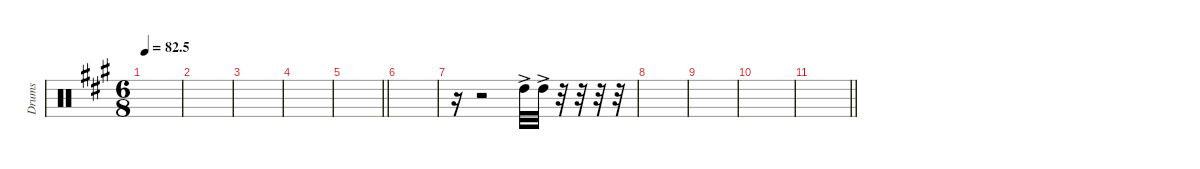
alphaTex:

\defaultSystemsLayout 4
\hideDynamics
\bracketExtendMode nobrackets
\otherSystemsTrackNameOrientation horizontal
\track ("Tom 01" "Drums") {instrument percussion}
\staff {score}
\articulation defaults
\ts (6 8)
\tempo
82.5
\accidentals auto
\clef neutral
\ottava regular
\simile none
\scale
0.333333
\ks a
|
\scale
0.333333 |
\scale
0.333333 |
\scale
0.333333 |
\scale
0.333333
\barLineRight lightlight
|
\scale
0.333333 |
\scale
0.333333 r.16 r.2 "High Tom (hit)"{ac acc forcenatural}.32 "High Tom (hit)"{ac acc forcenatural}.32 r.32 r.32 r.32 r.32 |
\scale
0.333333 |
\scale
0.333333 |
\scale
0.333333 |
\scale
0.333333
\barLineRight lightlight
|
\scale
0.333333 |
\scale
0.333333 |
\scale
0.333333 |
\scale
0.333333 |
\scale
0.333333
